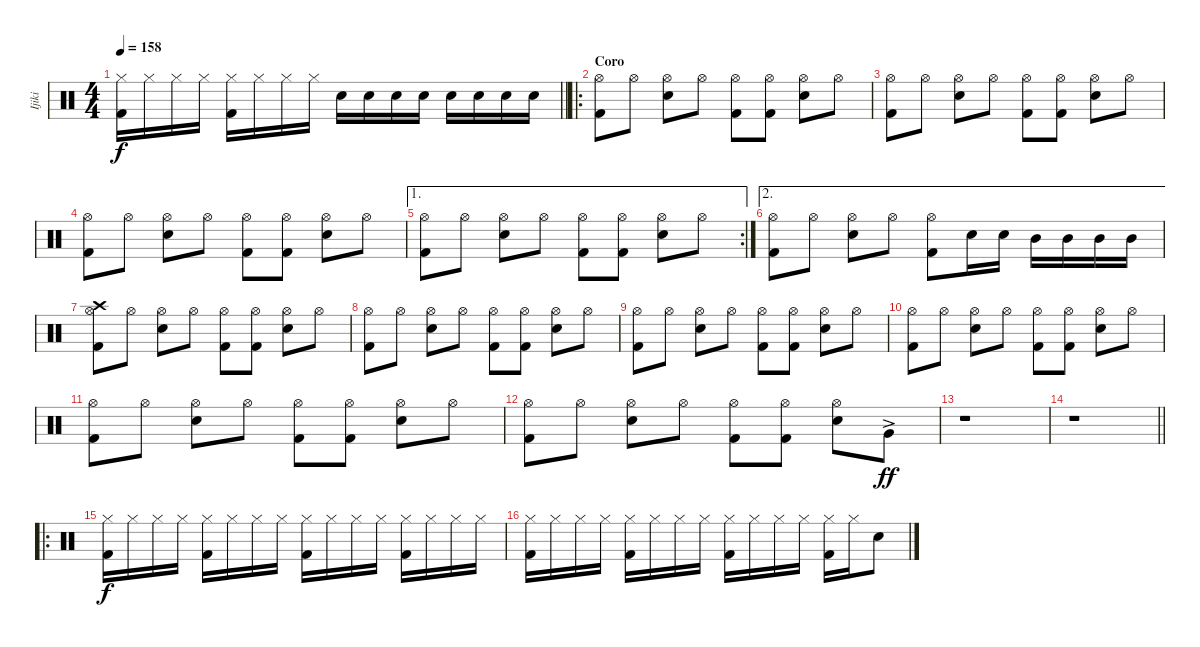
\track ("Ijiki" "Ijiki") {instrument percussion}
\staff {score}
\articulation defaults
\ts (4 4)
\tempo 158
\clef neutral
\barLineRight lightlight
\ks c
("Hi-Hat (closed)" "Kick (hit) 2").16{dy f} "Hi-Hat (closed)".16 "Hi-Hat (closed)".16 "Hi-Hat (closed)".16 ("Hi-Hat (closed)" "Kick (hit) 2").16 "Hi-Hat (closed)".16 "Hi-Hat (closed)".16 "Hi-Hat (closed)".16 "Snare (hit) 2".16 "Snare (hit) 2".16 "Snare (hit) 2".16 "Snare (hit) 2".16 "Snare (hit) 2".16 "Snare (hit) 2".16 "Snare (hit) 2".16 "Snare (hit) 2".16 |
\ro
\section ("" "Coro")
("Hi-Hat (open)" "Kick (hit) 2").8 "Hi-Hat (open)".8 ("Hi-Hat (open)" "Snare (hit) 2").8 "Hi-Hat (open)".8 ("Hi-Hat (open)" "Kick (hit) 2").8 ("Hi-Hat (open)" "Kick (hit) 2").8 ("Hi-Hat (open)" "Snare (hit) 2").8 "Hi-Hat (open)".8 |
("Hi-Hat (open)" "Kick (hit) 2").8 "Hi-Hat (open)".8 ("Hi-Hat (open)" "Snare (hit) 2").8 "Hi-Hat (open)".8 ("Hi-Hat (open)" "Kick (hit) 2").8 ("Hi-Hat (open)" "Kick (hit) 2").8 ("Hi-Hat (open)" "Snare (hit) 2").8 "Hi-Hat (open)".8 |
("Hi-Hat (open)" "Kick (hit) 2").8 "Hi-Hat (open)".8 ("Hi-Hat (open)" "Snare (hit) 2").8 "Hi-Hat (open)".8 ("Hi-Hat (open)" "Kick (hit) 2").8 ("Hi-Hat (open)" "Kick (hit) 2").8 ("Hi-Hat (open)" "Snare (hit) 2").8 "Hi-Hat (open)".8 |
\ae 1
\rc 2
("Hi-Hat (open)" "Kick (hit) 2").8 "Hi-Hat (open)".8 ("Hi-Hat (open)" "Snare (hit) 2").8 "Hi-Hat (open)".8 ("Hi-Hat (open)" "Kick (hit) 2").8 ("Hi-Hat (open)" "Kick (hit) 2").8 ("Hi-Hat (open)" "Snare (hit) 2").8 "Hi-Hat (open)".8 |
\ae 2
("Hi-Hat (open)" "Kick (hit) 2").8 "Hi-Hat (open)".8 ("Hi-Hat (open)" "Snare (hit) 2").8 "Hi-Hat (open)".8 ("Hi-Hat (open)" "Kick (hit) 2").8 "Snare (hit) 2".16 "Snare (hit) 2".16 "Mid Tom (hit)".16 "Mid Tom (hit)".16 "Mid Tom (hit)".16 "Mid Tom (hit)".16 |
("Hi-Hat (open)" "Kick (hit) 2" "Crash high (hit)").8 "Hi-Hat (open)".8 ("Hi-Hat (open)" "Snare (hit) 2").8 "Hi-Hat (open)".8 ("Hi-Hat (open)" "Kick (hit) 2").8 ("Hi-Hat (open)" "Kick (hit) 2").8 ("Hi-Hat (open)" "Snare (hit) 2").8 "Hi-Hat (open)".8 |
("Hi-Hat (open)" "Kick (hit) 2").8 "Hi-Hat (open)".8 ("Hi-Hat (open)" "Snare (hit) 2").8 "Hi-Hat (open)".8 ("Hi-Hat (open)" "Kick (hit) 2").8 ("Hi-Hat (open)" "Kick (hit) 2").8 ("Hi-Hat (open)" "Snare (hit) 2").8 "Hi-Hat (open)".8 |
("Hi-Hat (open)" "Kick (hit) 2").8 "Hi-Hat (open)".8 ("Hi-Hat (open)" "Snare (hit) 2").8 "Hi-Hat (open)".8 ("Hi-Hat (open)" "Kick (hit) 2").8 ("Hi-Hat (open)" "Kick (hit) 2").8 ("Hi-Hat (open)" "Snare (hit) 2").8 "Hi-Hat (open)".8 |
("Hi-Hat (open)" "Kick (hit) 2").8 "Hi-Hat (open)".8 ("Hi-Hat (open)" "Snare (hit) 2").8 "Hi-Hat (open)".8 ("Hi-Hat (open)" "Kick (hit) 2").8 ("Hi-Hat (open)" "Kick (hit) 2").8 ("Hi-Hat (open)" "Snare (hit) 2").8 "Hi-Hat (open)".8 |
("Hi-Hat (open)" "Kick (hit) 2").8 "Hi-Hat (open)".8 ("Hi-Hat (open)" "Snare (hit) 2").8 "Hi-Hat (open)".8 ("Hi-Hat (open)" "Kick (hit) 2").8 ("Hi-Hat (open)" "Kick (hit) 2").8 ("Hi-Hat (open)" "Snare (hit) 2").8 "Hi-Hat (open)".8 |
("Hi-Hat (open)" "Kick (hit) 2").8 "Hi-Hat (open)".8 ("Hi-Hat (open)" "Snare (hit) 2").8 "Hi-Hat (open)".8 ("Hi-Hat (open)" "Kick (hit) 2").8 ("Hi-Hat (open)" "Kick (hit) 2").8 ("Hi-Hat (open)" "Snare (hit) 2").8 "Very Low Tom (hit)"{ac}.8{dy ff} |
r.1 |
\barLineRight lightlight
r.1 |
\ro
("Hi-Hat (closed)" "Kick (hit) 2").16{dy f} "Hi-Hat (closed)".16 "Hi-Hat (closed)".16 "Hi-Hat (closed)".16 ("Hi-Hat (closed)" "Kick (hit) 2").16 "Hi-Hat (closed)".16 "Hi-Hat (closed)".16 "Hi-Hat (closed)".16 ("Hi-Hat (closed)" "Kick (hit) 2").16 "Hi-Hat (closed)".16 "Hi-Hat (closed)".16 "Hi-Hat (closed)".16 ("Hi-Hat (closed)" "Kick (hit) 2").16 "Hi-Hat (closed)".16 "Hi-Hat (closed)".16 "Hi-Hat (closed)".16 |
("Hi-Hat (closed)" "Kick (hit) 2").16 "Hi-Hat (closed)".16 "Hi-Hat (closed)".16 "Hi-Hat (closed)".16 ("Hi-Hat (closed)" "Kick (hit) 2").16 "Hi-Hat (closed)".16 "Hi-Hat (closed)".16 "Hi-Hat (closed)".16 ("Hi-Hat (closed)" "Kick (hit) 2").16 "Hi-Hat (closed)".16 "Hi-Hat (closed)".16 "Hi-Hat (closed)".16 ("Hi-Hat (closed)" "Kick (hit) 2").16 "Hi-Hat (closed)".16 "Snare (hit) 2".8
